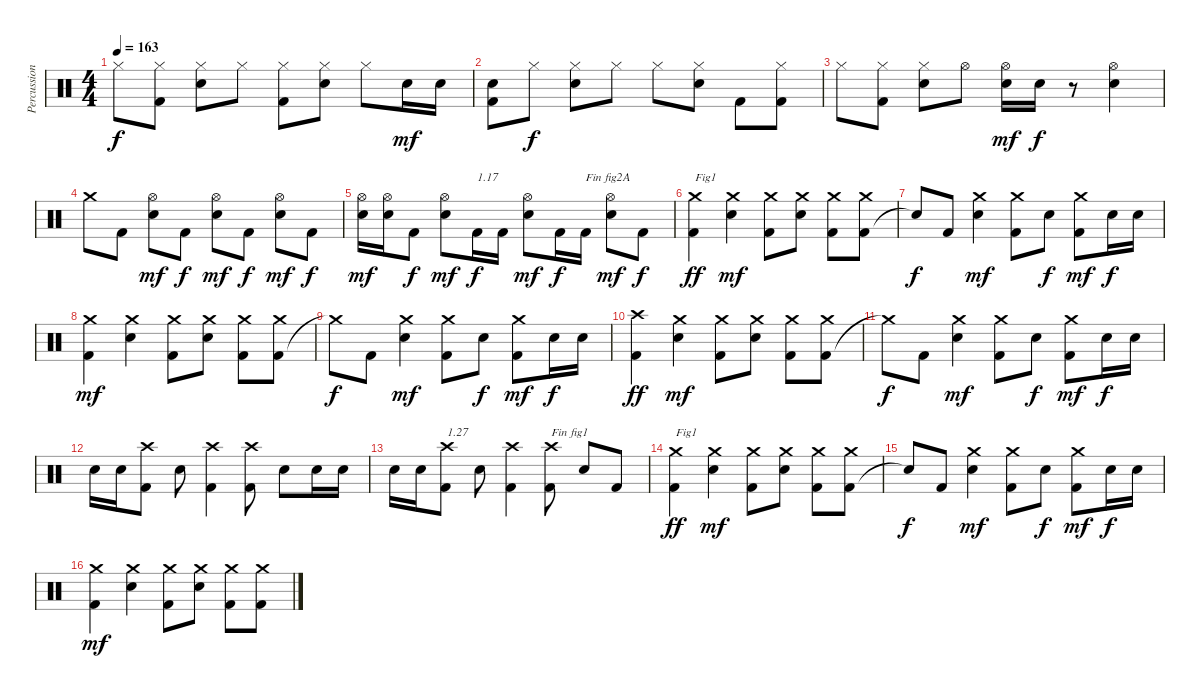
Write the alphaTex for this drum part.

\track ("Percussions" "Percussion") {instrument percussion}
\staff {score}
\articulation defaults
\ts (4 4)
\tempo 163
\clef neutral
\ks c "Hi-Hat (closed)".8{dy f}
("Kick (hit) 2" "Hi-Hat (closed)").8 ("Electric Snare (hit)" "Hi-Hat (closed)").8 "Hi-Hat (closed)".8 ("Kick (hit) 2" "Hi-Hat (closed)").8 ("Electric Snare (hit)" "Hi-Hat (closed)").8 "Hi-Hat (closed)".8 "Electric Snare (hit)".16{dy mf} "Electric Snare (hit)".16 |
("Kick (hit) 2" "Electric Snare (hit)").8 "Hi-Hat (closed)".8{dy f} ("Electric Snare (hit)" "Hi-Hat (closed)").8 "Hi-Hat (closed)".8 "Hi-Hat (closed)".8 ("Electric Snare (hit)" "Hi-Hat (closed)").8 "Kick (hit) 2".8 ("Kick (hit) 2" "Hi-Hat (closed)").8 |
"Hi-Hat (closed)".8 ("Kick (hit) 2" "Hi-Hat (closed)").8 ("Electric Snare (hit)" "Hi-Hat (closed)").8 "Hi-Hat (open)".8 ("Electric Snare (hit)" "Hi-Hat (open)").16{dy mf} "Electric Snare (hit)".16{dy f} r.8 ("Electric Snare (hit)" "Hi-Hat (open)").4 |
"Crash medium (hit)".8 "Kick (hit) 2".8 ("Electric Snare (hit)" "Hi-Hat (open)").8{dy mf} "Kick (hit) 2".8{dy f} ("Electric Snare (hit)" "Hi-Hat (open)").8{dy mf} "Kick (hit) 2".8{dy f} ("Electric Snare (hit)" "Hi-Hat (open)").8{dy mf} "Kick (hit) 2".8{dy f} |
("Electric Snare (hit)" "Hi-Hat (open)").16{dy mf} ("Electric Snare (hit)" "Hi-Hat (open)").16 "Kick (hit) 2".8{dy f} ("Electric Snare (hit)" "Hi-Hat (open)").8{dy mf} "Kick (hit) 2".16{txt "1.17" dy f} "Kick (hit) 2".16 ("Electric Snare (hit)" "Hi-Hat (open)").8{dy mf} "Kick (hit) 2".16{dy f} "Kick (hit) 2".16{txt "Fin fig2A"} ("Electric Snare (hit)" "Hi-Hat (open)").8{dy mf} "Kick (hit) 2".8{dy f} |
("Kick (hit) 2" "Crash medium (hit)").4{txt "Fig1" dy ff} ("Electric Snare (hit)" "Crash medium (hit)").4{dy mf} ("Kick (hit) 2" "Crash medium (hit)").8 ("Electric Snare (hit)" "Crash medium (hit)").8 ("Kick (hit) 2" "Crash medium (hit)").8 ("Kick (hit) 2" "Crash medium (hit)").8 |
"Snare (hit)"{t}.8{dy f} "Kick (hit) 2".8 ("Electric Snare (hit)" "Crash medium (hit)").4{dy mf} ("Kick (hit) 2" "Crash medium (hit)").8 "Electric Snare (hit)".8{dy f} ("Kick (hit) 2" "Crash medium (hit)").8{dy mf} "Electric Snare (hit)".16{dy f} "Electric Snare (hit)".16 |
("Kick (hit) 2" "Crash medium (hit)").4{dy mf} ("Electric Snare (hit)" "Crash medium (hit)").4 ("Kick (hit) 2" "Crash medium (hit)").8 ("Electric Snare (hit)" "Crash medium (hit)").8 ("Kick (hit) 2" "Crash medium (hit)").8 ("Kick (hit) 2" "Crash medium (hit)").8 |
"Crash medium (hit)"{t}.8{dy f} "Kick (hit) 2".8 ("Electric Snare (hit)" "Crash medium (hit)").4{dy mf} ("Kick (hit) 2" "Crash medium (hit)").8 "Electric Snare (hit)".8{dy f} ("Kick (hit) 2" "Crash medium (hit)").8{dy mf} "Electric Snare (hit)".16{dy f} "Electric Snare (hit)".16 |
("Kick (hit) 2" "Crash high (hit)").4{dy ff} ("Electric Snare (hit)" "Crash medium (hit)").4{dy mf} ("Kick (hit) 2" "Crash medium (hit)").8 ("Electric Snare (hit)" "Crash medium (hit)").8 ("Kick (hit) 2" "Crash medium (hit)").8 ("Kick (hit) 2" "Crash medium (hit)").8 |
"Crash medium (hit)"{t}.8{dy f} "Kick (hit) 2".8 ("Electric Snare (hit)" "Crash medium (hit)").4{dy mf} ("Kick (hit) 2" "Crash medium (hit)").8 "Electric Snare (hit)".8{dy f} ("Kick (hit) 2" "Crash medium (hit)").8{dy mf} "Electric Snare (hit)".16{dy f} "Electric Snare (hit)".16 |
"Electric Snare (hit)".16 "Electric Snare (hit)".16 ("Kick (hit) 2" "Crash high (hit)").8 "Electric Snare (hit)".8 ("Kick (hit) 2" "Crash high (hit)").4 ("Kick (hit) 2" "Crash high (hit)").8 "Electric Snare (hit)".8 "Electric Snare (hit)".16 "Electric Snare (hit)".16 |
"Electric Snare (hit)".16 "Electric Snare (hit)".16 ("Kick (hit) 2" "Crash high (hit)").8{txt "1.27"} "Electric Snare (hit)".8 ("Kick (hit) 2" "Crash high (hit)").4 ("Kick (hit) 2" "Crash high (hit)").8{txt "Fin fig1"} "Electric Snare (hit)".8 "Kick (hit) 2".8 |
("Kick (hit) 2" "Crash medium (hit)").4{txt "Fig1" dy ff} ("Electric Snare (hit)" "Crash medium (hit)").4{dy mf} ("Kick (hit) 2" "Crash medium (hit)").8 ("Electric Snare (hit)" "Crash medium (hit)").8 ("Kick (hit) 2" "Crash medium (hit)").8 ("Kick (hit) 2" "Crash medium (hit)").8 |
"Snare (hit)"{t}.8{dy f} "Kick (hit) 2".8 ("Electric Snare (hit)" "Crash medium (hit)").4{dy mf} ("Kick (hit) 2" "Crash medium (hit)").8 "Electric Snare (hit)".8{dy f} ("Kick (hit) 2" "Crash medium (hit)").8{dy mf} "Electric Snare (hit)".16{dy f} "Electric Snare (hit)".16 |
("Kick (hit) 2" "Crash medium (hit)").4{dy mf} ("Electric Snare (hit)" "Crash medium (hit)").4 ("Kick (hit) 2" "Crash medium (hit)").8 ("Electric Snare (hit)" "Crash medium (hit)").8 ("Kick (hit) 2" "Crash medium (hit)").8 ("Kick (hit) 2" "Crash medium (hit)").8
